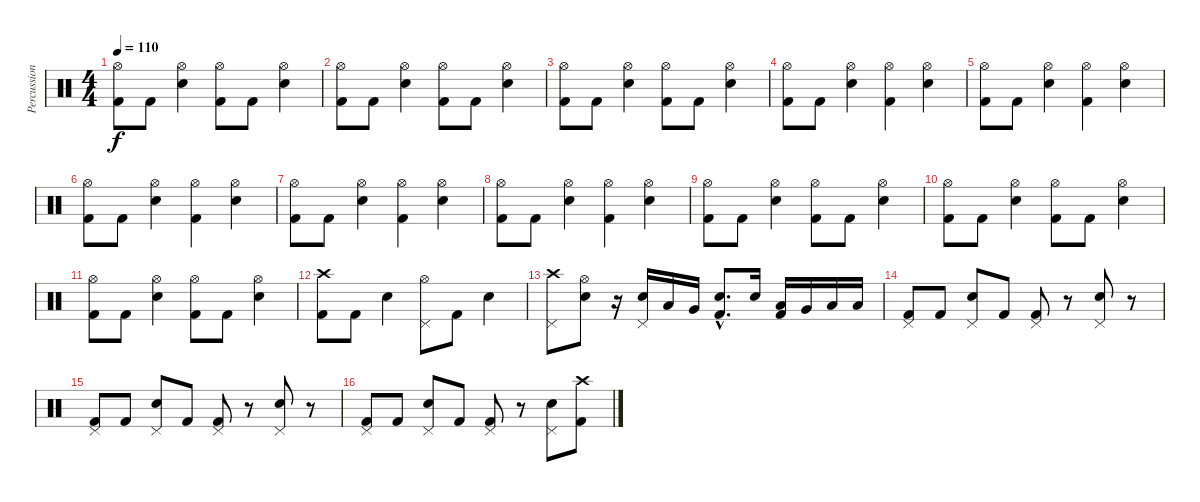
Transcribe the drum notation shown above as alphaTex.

\track ("Percussion" "Percussion") {instrument percussion}
\staff {score}
\articulation defaults
\ts (4 4)
\tempo 110
\clef neutral
\ks c
("Hi-Hat (open)" "Kick (hit) 2").8{dy f} "Kick (hit) 2".8 ("Electric Snare (hit)" "Hi-Hat (open)").4 ("Hi-Hat (open)" "Kick (hit) 2").8 "Kick (hit) 2".8 ("Electric Snare (hit)" "Hi-Hat (open)").4 |
("Hi-Hat (open)" "Kick (hit) 2").8 "Kick (hit) 2".8 ("Electric Snare (hit)" "Hi-Hat (open)").4 ("Hi-Hat (open)" "Kick (hit) 2").8 "Kick (hit) 2".8 ("Electric Snare (hit)" "Hi-Hat (open)").4 |
("Hi-Hat (open)" "Kick (hit) 2").8 "Kick (hit) 2".8 ("Electric Snare (hit)" "Hi-Hat (open)").4 ("Hi-Hat (open)" "Kick (hit) 2").8 "Kick (hit) 2".8 ("Electric Snare (hit)" "Hi-Hat (open)").4 |
("Hi-Hat (open)" "Kick (hit) 2").8 "Kick (hit) 2".8 ("Electric Snare (hit)" "Hi-Hat (open)").4 ("Hi-Hat (open)" "Kick (hit) 2").4 ("Electric Snare (hit)" "Hi-Hat (open)").4 |
("Hi-Hat (open)" "Kick (hit) 2").8 "Kick (hit) 2".8 ("Electric Snare (hit)" "Hi-Hat (open)").4 ("Hi-Hat (open)" "Kick (hit) 2").4 ("Electric Snare (hit)" "Hi-Hat (open)").4 |
("Hi-Hat (open)" "Kick (hit) 2").8 "Kick (hit) 2".8 ("Electric Snare (hit)" "Hi-Hat (open)").4 ("Hi-Hat (open)" "Kick (hit) 2").4 ("Electric Snare (hit)" "Hi-Hat (open)").4 |
("Hi-Hat (open)" "Kick (hit) 2").8 "Kick (hit) 2".8 ("Electric Snare (hit)" "Hi-Hat (open)").4 ("Hi-Hat (open)" "Kick (hit) 2").4 ("Electric Snare (hit)" "Hi-Hat (open)").4 |
("Hi-Hat (open)" "Kick (hit) 2").8 "Kick (hit) 2".8 ("Electric Snare (hit)" "Hi-Hat (open)").4 ("Hi-Hat (open)" "Kick (hit) 2").4 ("Electric Snare (hit)" "Hi-Hat (open)").4 |
("Hi-Hat (open)" "Kick (hit) 2").8 "Kick (hit) 2".8 ("Electric Snare (hit)" "Hi-Hat (open)").4 ("Hi-Hat (open)" "Kick (hit) 2").8 "Kick (hit) 2".8 ("Electric Snare (hit)" "Hi-Hat (open)").4 |
("Hi-Hat (open)" "Kick (hit) 2").8 "Kick (hit) 2".8 ("Electric Snare (hit)" "Hi-Hat (open)").4 ("Hi-Hat (open)" "Kick (hit) 2").8 "Kick (hit) 2".8 ("Electric Snare (hit)" "Hi-Hat (open)").4 |
("Hi-Hat (open)" "Kick (hit) 2").8 "Kick (hit) 2".8 ("Electric Snare (hit)" "Hi-Hat (open)").4 ("Hi-Hat (open)" "Kick (hit) 2").8 "Kick (hit) 2".8 ("Electric Snare (hit)" "Hi-Hat (open)").4 |
("Crash high (hit)" "Kick (hit) 2").8 "Kick (hit) 2".8 "Electric Snare (hit)".4 ("Hi-Hat (open)" "Pedal Hi-Hat (hit)").8 "Kick (hit) 2".8 "Electric Snare (hit)".4 |
("Pedal Hi-Hat (hit)" "Crash high (hit)").8 ("Electric Snare (hit)" "Hi-Hat (open)").8 r.16 ("Electric Snare (hit)" "Pedal Hi-Hat (hit)").16 "Low Tom (hit)".16 "Very Low Tom (hit)".16 ("Electric Snare (hit)"{hac} "Kick (hit) 2"{hac}).8{d} "Electric Snare (hit)".16 ("Low Tom (hit)" "Kick (hit) 2").16 "Very Low Tom (hit)".16 "Low Floor Tom (hit)".16 "Low Floor Tom (hit)".16 |
("Pedal Hi-Hat (hit)" "Kick (hit) 2").8 "Kick (hit) 2".8 ("Electric Snare (hit)" "Pedal Hi-Hat (hit)").8 "Kick (hit) 2".8 ("Pedal Hi-Hat (hit)" "Kick (hit) 2").8 r.8 ("Electric Snare (hit)" "Pedal Hi-Hat (hit)").8 r.8 |
("Pedal Hi-Hat (hit)" "Kick (hit) 2").8 "Kick (hit) 2".8 ("Electric Snare (hit)" "Pedal Hi-Hat (hit)").8 "Kick (hit) 2".8 ("Pedal Hi-Hat (hit)" "Kick (hit) 2").8 r.8 ("Electric Snare (hit)" "Pedal Hi-Hat (hit)").8 r.8 |
("Pedal Hi-Hat (hit)" "Kick (hit) 2").8 "Kick (hit) 2".8 ("Electric Snare (hit)" "Pedal Hi-Hat (hit)").8 "Kick (hit) 2".8 ("Pedal Hi-Hat (hit)" "Kick (hit) 2").8 r.8 ("Electric Snare (hit)" "Pedal Hi-Hat (hit)").8 ("Kick (hit) 2" "Crash high (hit)").8
